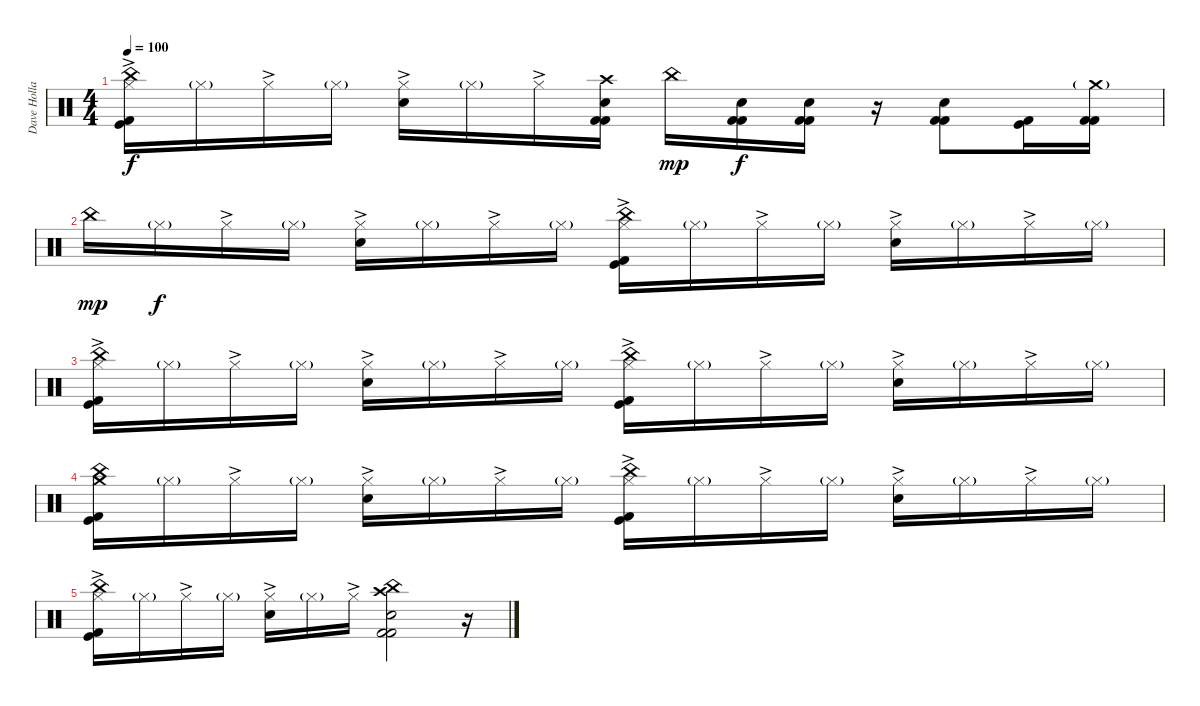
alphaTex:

\track ("Dave Holland" "Dave Holla") {instrument percussion}
\staff {score}
\articulation defaults
\ts (4 4)
\tempo 100
\clef neutral
\ks c
("Hi-Hat (closed)"{ac} "China (hit)" "Kick (hit)" "Kick (hit) 2").16{dy f} "Hi-Hat (closed)"{g}.16 "Hi-Hat (closed)"{ac}.16 "Hi-Hat (closed)"{g}.16 ("Hi-Hat (closed)"{ac} "Electric Snare (hit)").16 "Hi-Hat (closed)"{g}.16 "Hi-Hat (closed)"{ac}.16 ("Crash high (hit)" "Electric Snare (hit)" "Kick (hit) 2" "Kick (hit) 2").16 "China (hit)".16{dy mp} ("Electric Snare (hit)" "Kick (hit) 2" "Kick (hit) 2").16{dy f} ("Electric Snare (hit)" "Kick (hit) 2" "Kick (hit) 2").16 r.16 ("Electric Snare (hit)" "Kick (hit) 2" "Kick (hit) 2").8 ("Kick (hit)" "Kick (hit) 2").16 ("Crash medium (hit)"{g} "Kick (hit) 2" "Kick (hit) 2").16 |
"China (hit)".16{dy mp} "Hi-Hat (closed)"{g}.16{dy f} "Hi-Hat (closed)"{ac}.16 "Hi-Hat (closed)"{g}.16 ("Hi-Hat (closed)"{ac} "Electric Snare (hit)").16 "Hi-Hat (closed)"{g}.16 "Hi-Hat (closed)"{ac}.16 "Hi-Hat (closed)"{g}.16 ("Hi-Hat (closed)"{ac} "China (hit)" "Kick (hit)" "Kick (hit) 2").16 "Hi-Hat (closed)"{g}.16 "Hi-Hat (closed)"{ac}.16 "Hi-Hat (closed)"{g}.16 ("Hi-Hat (closed)"{ac} "Electric Snare (hit)").16 "Hi-Hat (closed)"{g}.16 "Hi-Hat (closed)"{ac}.16 "Hi-Hat (closed)"{g}.16 |
("Hi-Hat (closed)"{ac} "China (hit)" "Kick (hit)" "Kick (hit) 2").16 "Hi-Hat (closed)"{g}.16 "Hi-Hat (closed)"{ac}.16 "Hi-Hat (closed)"{g}.16 ("Hi-Hat (closed)"{ac} "Electric Snare (hit)").16 "Hi-Hat (closed)"{g}.16 "Hi-Hat (closed)"{ac}.16 "Hi-Hat (closed)"{g}.16 ("Hi-Hat (closed)"{ac} "China (hit)" "Kick (hit)" "Kick (hit) 2").16 "Hi-Hat (closed)"{g}.16 "Hi-Hat (closed)"{ac}.16 "Hi-Hat (closed)"{g}.16 ("Hi-Hat (closed)"{ac} "Electric Snare (hit)").16 "Hi-Hat (closed)"{g}.16 "Hi-Hat (closed)"{ac}.16 "Hi-Hat (closed)"{g}.16 |
("Crash medium (hit)" "China (hit)" "Kick (hit)" "Kick (hit) 2").16 "Hi-Hat (closed)"{g}.16 "Hi-Hat (closed)"{ac}.16 "Hi-Hat (closed)"{g}.16 ("Hi-Hat (closed)"{ac} "Electric Snare (hit)").16 "Hi-Hat (closed)"{g}.16 "Hi-Hat (closed)"{ac}.16 "Hi-Hat (closed)"{g}.16 ("Hi-Hat (closed)"{ac} "China (hit)" "Kick (hit)" "Kick (hit) 2").16 "Hi-Hat (closed)"{g}.16 "Hi-Hat (closed)"{ac}.16 "Hi-Hat (closed)"{g}.16 ("Hi-Hat (closed)"{ac} "Electric Snare (hit)").16 "Hi-Hat (closed)"{g}.16 "Hi-Hat (closed)"{ac}.16 "Hi-Hat (closed)"{g}.16 |
("Hi-Hat (closed)"{ac} "China (hit)" "Kick (hit)" "Kick (hit) 2").16 "Hi-Hat (closed)"{g}.16 "Hi-Hat (closed)"{ac}.16 "Hi-Hat (closed)"{g}.16 ("Hi-Hat (closed)"{ac} "Electric Snare (hit)").16 "Hi-Hat (closed)"{g}.16 "Hi-Hat (closed)"{ac}.16 ("Crash high (hit)" "China (hit)" "Electric Snare (hit)" "Kick (hit) 2" "Kick (hit) 2").2 r.16
